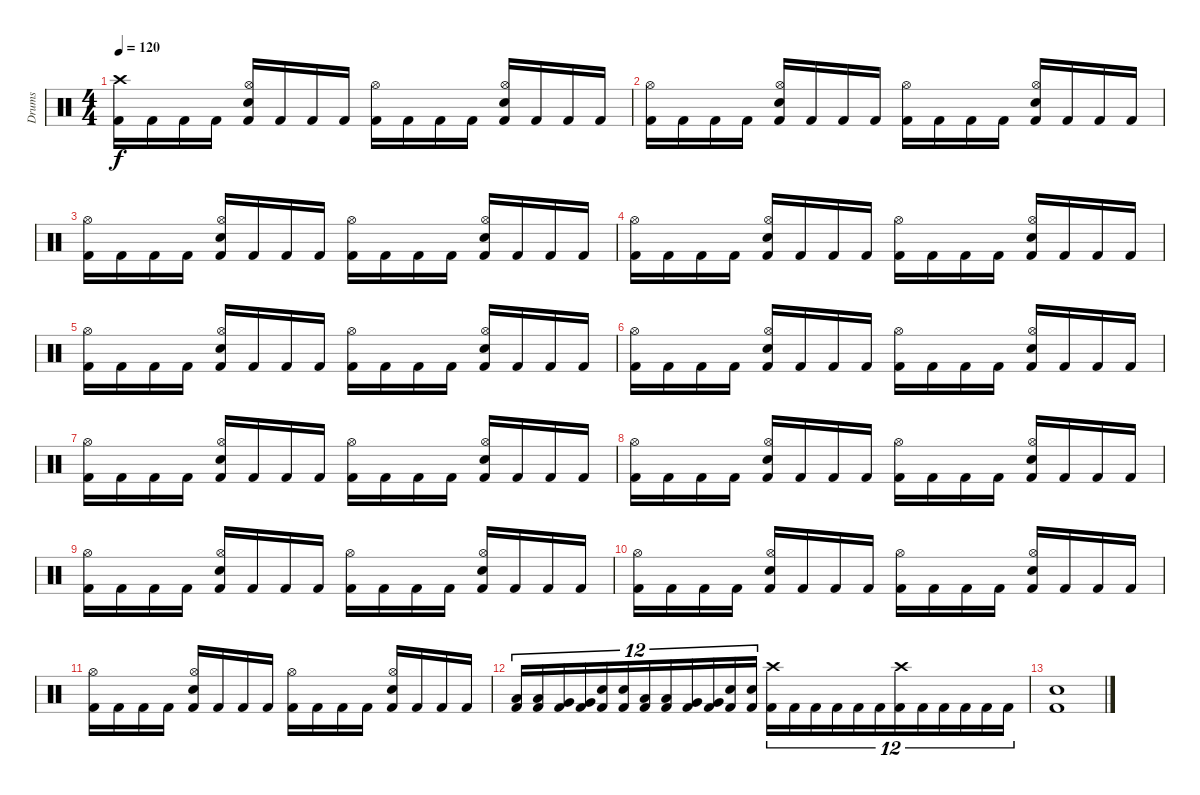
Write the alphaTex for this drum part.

\track ("Drums" "Drums") {instrument percussion}
\staff {score}
\articulation defaults
\ts (4 4)
\tempo 120
\clef neutral
\ks c
("Crash high (hit)" "Kick (hit) 2").16{dy f} "Kick (hit) 2".16 "Kick (hit) 2".16 "Kick (hit) 2".16 ("Hi-Hat (open)" "Electric Snare (hit)" "Kick (hit) 2").16 "Kick (hit) 2".16 "Kick (hit) 2".16 "Kick (hit) 2".16 ("Hi-Hat (open)" "Kick (hit) 2").16 "Kick (hit) 2".16 "Kick (hit) 2".16 "Kick (hit) 2".16 ("Hi-Hat (open)" "Electric Snare (hit)" "Kick (hit) 2").16 "Kick (hit) 2".16 "Kick (hit) 2".16 "Kick (hit) 2".16 |
("Hi-Hat (open)" "Kick (hit) 2").16 "Kick (hit) 2".16 "Kick (hit) 2".16 "Kick (hit) 2".16 ("Hi-Hat (open)" "Electric Snare (hit)" "Kick (hit) 2").16 "Kick (hit) 2".16 "Kick (hit) 2".16 "Kick (hit) 2".16 ("Hi-Hat (open)" "Kick (hit) 2").16 "Kick (hit) 2".16 "Kick (hit) 2".16 "Kick (hit) 2".16 ("Hi-Hat (open)" "Electric Snare (hit)" "Kick (hit) 2").16 "Kick (hit) 2".16 "Kick (hit) 2".16 "Kick (hit) 2".16 |
("Hi-Hat (open)" "Kick (hit) 2").16 "Kick (hit) 2".16 "Kick (hit) 2".16 "Kick (hit) 2".16 ("Hi-Hat (open)" "Electric Snare (hit)" "Kick (hit) 2").16 "Kick (hit) 2".16 "Kick (hit) 2".16 "Kick (hit) 2".16 ("Hi-Hat (open)" "Kick (hit) 2").16 "Kick (hit) 2".16 "Kick (hit) 2".16 "Kick (hit) 2".16 ("Hi-Hat (open)" "Electric Snare (hit)" "Kick (hit) 2").16 "Kick (hit) 2".16 "Kick (hit) 2".16 "Kick (hit) 2".16 |
("Hi-Hat (open)" "Kick (hit) 2").16 "Kick (hit) 2".16 "Kick (hit) 2".16 "Kick (hit) 2".16 ("Hi-Hat (open)" "Electric Snare (hit)" "Kick (hit) 2").16 "Kick (hit) 2".16 "Kick (hit) 2".16 "Kick (hit) 2".16 ("Hi-Hat (open)" "Kick (hit) 2").16 "Kick (hit) 2".16 "Kick (hit) 2".16 "Kick (hit) 2".16 ("Hi-Hat (open)" "Electric Snare (hit)" "Kick (hit) 2").16 "Kick (hit) 2".16 "Kick (hit) 2".16 "Kick (hit) 2".16 |
("Hi-Hat (open)" "Kick (hit) 2").16 "Kick (hit) 2".16 "Kick (hit) 2".16 "Kick (hit) 2".16 ("Hi-Hat (open)" "Electric Snare (hit)" "Kick (hit) 2").16 "Kick (hit) 2".16 "Kick (hit) 2".16 "Kick (hit) 2".16 ("Hi-Hat (open)" "Kick (hit) 2").16 "Kick (hit) 2".16 "Kick (hit) 2".16 "Kick (hit) 2".16 ("Hi-Hat (open)" "Electric Snare (hit)" "Kick (hit) 2").16 "Kick (hit) 2".16 "Kick (hit) 2".16 "Kick (hit) 2".16 |
("Hi-Hat (open)" "Kick (hit) 2").16 "Kick (hit) 2".16 "Kick (hit) 2".16 "Kick (hit) 2".16 ("Hi-Hat (open)" "Electric Snare (hit)" "Kick (hit) 2").16 "Kick (hit) 2".16 "Kick (hit) 2".16 "Kick (hit) 2".16 ("Hi-Hat (open)" "Kick (hit) 2").16 "Kick (hit) 2".16 "Kick (hit) 2".16 "Kick (hit) 2".16 ("Hi-Hat (open)" "Electric Snare (hit)" "Kick (hit) 2").16 "Kick (hit) 2".16 "Kick (hit) 2".16 "Kick (hit) 2".16 |
("Hi-Hat (open)" "Kick (hit) 2").16 "Kick (hit) 2".16 "Kick (hit) 2".16 "Kick (hit) 2".16 ("Hi-Hat (open)" "Electric Snare (hit)" "Kick (hit) 2").16 "Kick (hit) 2".16 "Kick (hit) 2".16 "Kick (hit) 2".16 ("Hi-Hat (open)" "Kick (hit) 2").16 "Kick (hit) 2".16 "Kick (hit) 2".16 "Kick (hit) 2".16 ("Hi-Hat (open)" "Electric Snare (hit)" "Kick (hit) 2").16 "Kick (hit) 2".16 "Kick (hit) 2".16 "Kick (hit) 2".16 |
("Hi-Hat (open)" "Kick (hit) 2").16 "Kick (hit) 2".16 "Kick (hit) 2".16 "Kick (hit) 2".16 ("Hi-Hat (open)" "Electric Snare (hit)" "Kick (hit) 2").16 "Kick (hit) 2".16 "Kick (hit) 2".16 "Kick (hit) 2".16 ("Hi-Hat (open)" "Kick (hit) 2").16 "Kick (hit) 2".16 "Kick (hit) 2".16 "Kick (hit) 2".16 ("Hi-Hat (open)" "Electric Snare (hit)" "Kick (hit) 2").16 "Kick (hit) 2".16 "Kick (hit) 2".16 "Kick (hit) 2".16 |
("Hi-Hat (open)" "Kick (hit) 2").16 "Kick (hit) 2".16 "Kick (hit) 2".16 "Kick (hit) 2".16 ("Hi-Hat (open)" "Electric Snare (hit)" "Kick (hit) 2").16 "Kick (hit) 2".16 "Kick (hit) 2".16 "Kick (hit) 2".16 ("Hi-Hat (open)" "Kick (hit) 2").16 "Kick (hit) 2".16 "Kick (hit) 2".16 "Kick (hit) 2".16 ("Hi-Hat (open)" "Electric Snare (hit)" "Kick (hit) 2").16 "Kick (hit) 2".16 "Kick (hit) 2".16 "Kick (hit) 2".16 |
("Hi-Hat (open)" "Kick (hit) 2").16 "Kick (hit) 2".16 "Kick (hit) 2".16 "Kick (hit) 2".16 ("Hi-Hat (open)" "Electric Snare (hit)" "Kick (hit) 2").16 "Kick (hit) 2".16 "Kick (hit) 2".16 "Kick (hit) 2".16 ("Hi-Hat (open)" "Kick (hit) 2").16 "Kick (hit) 2".16 "Kick (hit) 2".16 "Kick (hit) 2".16 ("Hi-Hat (open)" "Electric Snare (hit)" "Kick (hit) 2").16 "Kick (hit) 2".16 "Kick (hit) 2".16 "Kick (hit) 2".16 |
("Hi-Hat (open)" "Kick (hit) 2").16 "Kick (hit) 2".16 "Kick (hit) 2".16 "Kick (hit) 2".16 ("Hi-Hat (open)" "Electric Snare (hit)" "Kick (hit) 2").16 "Kick (hit) 2".16 "Kick (hit) 2".16 "Kick (hit) 2".16 ("Hi-Hat (open)" "Kick (hit) 2").16 "Kick (hit) 2".16 "Kick (hit) 2".16 "Kick (hit) 2".16 ("Hi-Hat (open)" "Electric Snare (hit)" "Kick (hit) 2").16 "Kick (hit) 2".16 "Kick (hit) 2".16 "Kick (hit) 2".16 |
("Low Floor Tom (hit)" "Kick (hit) 2").16{tu (12 8)} ("Low Floor Tom (hit)" "Kick (hit) 2").16{tu (12 8)} ("Very Low Tom (hit)" "Kick (hit) 2").16{tu (12 8)} ("Very Low Tom (hit)" "Kick (hit) 2").16{tu (12 8)} ("Electric Snare (hit)" "Kick (hit) 2").16{tu (12 8)} ("Electric Snare (hit)" "Kick (hit) 2").16{tu (12 8)} ("Low Floor Tom (hit)" "Kick (hit) 2").16{tu (12 8)} ("Low Floor Tom (hit)" "Kick (hit) 2").16{tu (12 8)} ("Very Low Tom (hit)" "Kick (hit) 2").16{tu (12 8)} ("Very Low Tom (hit)" "Kick (hit) 2").16{tu (12 8)} ("Electric Snare (hit)" "Kick (hit) 2").16{tu (12 8)} ("Electric Snare (hit)" "Kick (hit) 2").16{tu (12 8)} ("Crash high (hit)" "Kick (hit) 2").16{tu (12 8)} "Kick (hit) 2".16{tu (12 8)} "Kick (hit) 2".16{tu (12 8)} "Kick (hit) 2".16{tu (12 8)} "Kick (hit) 2".16{tu (12 8)} "Kick (hit) 2".16{tu (12 8)} ("Crash high (hit)" "Kick (hit) 2").16{tu (12 8)} "Kick (hit) 2".16{tu (12 8)} "Kick (hit) 2".16{tu (12 8)} "Kick (hit) 2".16{tu (12 8)} "Kick (hit) 2".16{tu (12 8)} "Kick (hit) 2".16{tu (12 8)} |
("Electric Snare (hit)" "Kick (hit) 2").1
